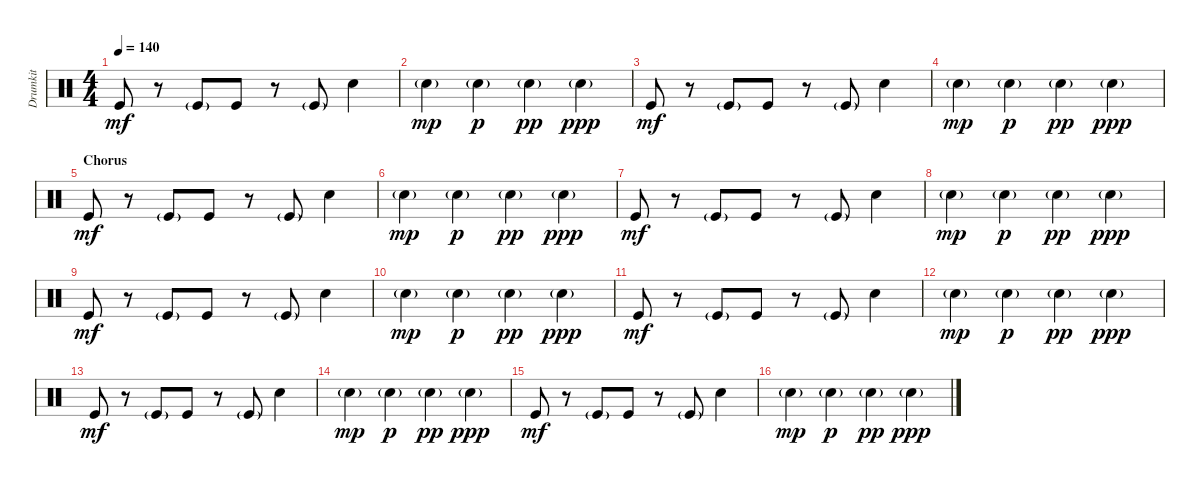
\track ("Drumkit" "Drumkit") {instrument percussion}
\staff {score}
\articulation defaults
\ts (4 4)
\tempo 140
\clef neutral
\ks c "Kick (hit)".8{dy mf}
r.8 "Kick (hit)"{g}.8 "Kick (hit)".8 r.8 "Kick (hit)"{g}.8 "Snare (hit) 2".4 |
"Snare (hit) 2"{g}.4{dy mp} "Snare (hit) 2"{g}.4{dy p} "Snare (hit) 2"{g}.4{dy pp} "Snare (hit) 2"{g}.4{dy ppp} |
"Kick (hit)".8{dy mf} r.8 "Kick (hit)"{g}.8 "Kick (hit)".8 r.8 "Kick (hit)"{g}.8 "Snare (hit) 2".4 |
"Snare (hit) 2"{g}.4{dy mp} "Snare (hit) 2"{g}.4{dy p} "Snare (hit) 2"{g}.4{dy pp} "Snare (hit) 2"{g}.4{dy ppp} |
\section ("" "Chorus")
"Kick (hit)".8{dy mf} r.8 "Kick (hit)"{g}.8 "Kick (hit)".8 r.8 "Kick (hit)"{g}.8 "Snare (hit) 2".4 |
"Snare (hit) 2"{g}.4{dy mp} "Snare (hit) 2"{g}.4{dy p} "Snare (hit) 2"{g}.4{dy pp} "Snare (hit) 2"{g}.4{dy ppp} |
"Kick (hit)".8{dy mf} r.8 "Kick (hit)"{g}.8 "Kick (hit)".8 r.8 "Kick (hit)"{g}.8 "Snare (hit) 2".4 |
"Snare (hit) 2"{g}.4{dy mp} "Snare (hit) 2"{g}.4{dy p} "Snare (hit) 2"{g}.4{dy pp} "Snare (hit) 2"{g}.4{dy ppp} |
"Kick (hit)".8{dy mf} r.8 "Kick (hit)"{g}.8 "Kick (hit)".8 r.8 "Kick (hit)"{g}.8 "Snare (hit) 2".4 |
"Snare (hit) 2"{g}.4{dy mp} "Snare (hit) 2"{g}.4{dy p} "Snare (hit) 2"{g}.4{dy pp} "Snare (hit) 2"{g}.4{dy ppp} |
"Kick (hit)".8{dy mf} r.8 "Kick (hit)"{g}.8 "Kick (hit)".8 r.8 "Kick (hit)"{g}.8 "Snare (hit) 2".4 |
"Snare (hit) 2"{g}.4{dy mp} "Snare (hit) 2"{g}.4{dy p} "Snare (hit) 2"{g}.4{dy pp} "Snare (hit) 2"{g}.4{dy ppp} |
"Kick (hit)".8{dy mf} r.8 "Kick (hit)"{g}.8 "Kick (hit)".8 r.8 "Kick (hit)"{g}.8 "Snare (hit) 2".4 |
"Snare (hit) 2"{g}.4{dy mp} "Snare (hit) 2"{g}.4{dy p} "Snare (hit) 2"{g}.4{dy pp} "Snare (hit) 2"{g}.4{dy ppp} |
"Kick (hit)".8{dy mf} r.8 "Kick (hit)"{g}.8 "Kick (hit)".8 r.8 "Kick (hit)"{g}.8 "Snare (hit) 2".4 |
"Snare (hit) 2"{g}.4{dy mp} "Snare (hit) 2"{g}.4{dy p} "Snare (hit) 2"{g}.4{dy pp} "Snare (hit) 2"{g}.4{dy ppp}
